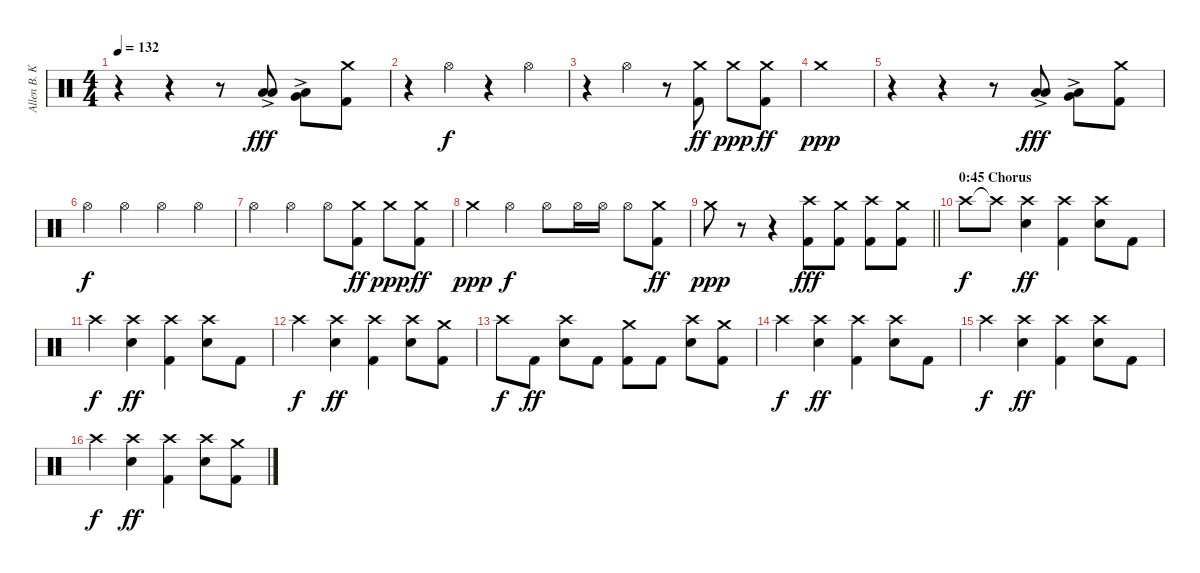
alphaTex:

\track ("Allen B. Konstanz (Drums)" "Allen B. K") {instrument percussion}
\staff {score}
\articulation defaults
\ts (4 4)
\tempo 132
\clef neutral
\ks c
r.4{dy ppp} r.4 r.8 ("Low Tom (hit)" "Low Floor Tom (hit)"{ac}).8{dy fff} ("Very Low Tom (hit)" "Low Floor Tom (hit)"{ac}).8 ("Kick (hit) 2" "Crash medium (hit)").8 |
r.4 "Hi-Hat (open)".4{dy f} r.4 "Hi-Hat (open)".4 |
r.4 "Hi-Hat (open)".4 r.8 ("Kick (hit) 2" "Crash medium (hit)").8{dy ff} "Crash medium (hit)".8{dy ppp} ("Kick (hit) 2" "Crash medium (hit)").8{dy ff} |
"Crash medium (hit)".1{dy ppp} |
r.4 r.4 r.8 ("Low Tom (hit)" "Low Floor Tom (hit)"{ac}).8{dy fff} ("Very Low Tom (hit)" "Low Floor Tom (hit)"{ac}).8 ("Kick (hit) 2" "Crash medium (hit)").8 |
"Hi-Hat (open)".4{dy f} "Hi-Hat (open)".4 "Hi-Hat (open)".4 "Hi-Hat (open)".4 |
"Hi-Hat (open)".4 "Hi-Hat (open)".4 "Hi-Hat (open)".8 ("Kick (hit) 2" "Crash medium (hit)").8{dy ff} "Crash medium (hit)".8{dy ppp} ("Kick (hit) 2" "Crash medium (hit)").8{dy ff} |
"Crash medium (hit)".4{dy ppp} "Hi-Hat (open)".4{dy f} "Hi-Hat (open)".8 "Hi-Hat (open)".16 "Hi-Hat (open)".16 "Hi-Hat (open)".8 ("Kick (hit) 2" "Crash medium (hit)").8{dy ff} |
\barLineRight lightlight "Crash medium (hit)".8{dy ppp}
r.8 r.4 ("Kick (hit) 2" "Crash high (hit)").8{dy fff} ("Kick (hit) 2" "Crash medium (hit)").8 ("Kick (hit) 2" "Crash high (hit)").8 ("Kick (hit) 2" "Crash medium (hit)").8 |
\section ("" "0:45 Chorus")
"Crash high (hit)".8{dy f} "Crash high (hit)"{t}.8 ("Electric Snare (hit)" "Crash high (hit)").4{dy ff} ("Kick (hit) 2" "Crash high (hit)").4 ("Electric Snare (hit)" "Crash high (hit)").8 "Kick (hit) 2".8 |
"Crash high (hit)".4{dy f} ("Electric Snare (hit)" "Crash high (hit)").4{dy ff} ("Kick (hit) 2" "Crash high (hit)").4 ("Electric Snare (hit)" "Crash high (hit)").8 "Kick (hit) 2".8 |
"Crash high (hit)".4{dy f} ("Electric Snare (hit)" "Crash high (hit)").4{dy ff} ("Kick (hit) 2" "Crash high (hit)").4 ("Electric Snare (hit)" "Crash high (hit)").8 ("Kick (hit) 2" "Crash medium (hit)").8 |
"Crash high (hit)".8{dy f} "Kick (hit) 2".8{dy ff} ("Electric Snare (hit)" "Crash high (hit)").8 "Kick (hit) 2".8 ("Kick (hit) 2" "Crash medium (hit)").8 "Kick (hit) 2".8 ("Electric Snare (hit)" "Crash high (hit)").8 ("Kick (hit) 2" "Crash medium (hit)").8 |
"Crash high (hit)".4{dy f} ("Electric Snare (hit)" "Crash high (hit)").4{dy ff} ("Kick (hit) 2" "Crash high (hit)").4 ("Electric Snare (hit)" "Crash high (hit)").8 "Kick (hit) 2".8 |
"Crash high (hit)".4{dy f} ("Electric Snare (hit)" "Crash high (hit)").4{dy ff} ("Kick (hit) 2" "Crash high (hit)").4 ("Electric Snare (hit)" "Crash high (hit)").8 "Kick (hit) 2".8 |
"Crash high (hit)".4{dy f} ("Electric Snare (hit)" "Crash high (hit)").4{dy ff} ("Kick (hit) 2" "Crash high (hit)").4 ("Electric Snare (hit)" "Crash high (hit)").8 ("Kick (hit) 2" "Crash medium (hit)").8
